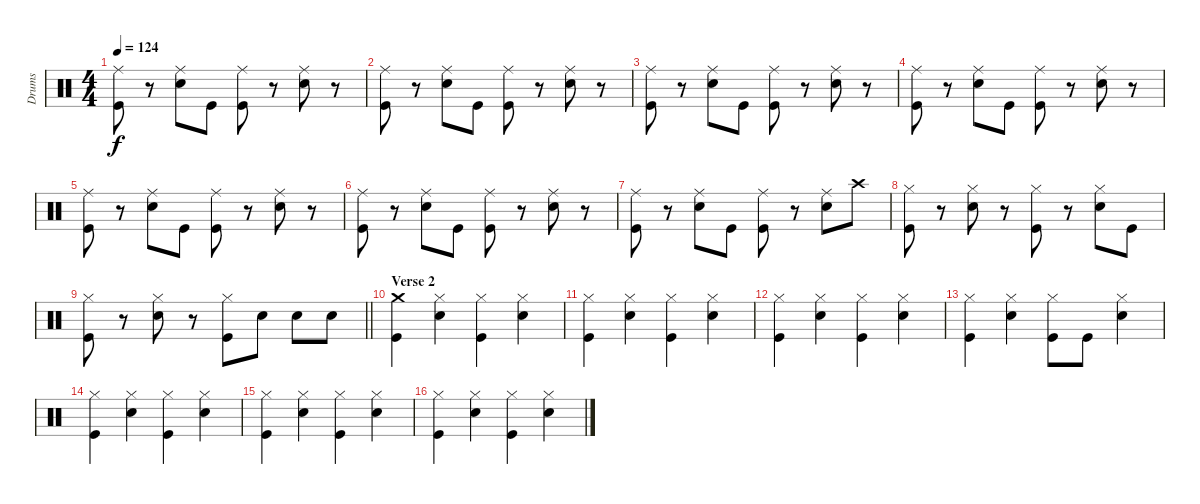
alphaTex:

\track ("Drums" "Drums") {instrument percussion}
\staff {score}
\articulation defaults
\ts (4 4)
\tempo 124
\clef neutral
\ks c
("Ride (middle)" "Kick (hit)").8{dy f} r.8 ("Ride (middle)" "Snare (hit) 2").8 "Kick (hit)".8 ("Ride (middle)" "Kick (hit)").8 r.8 ("Ride (middle)" "Snare (hit) 2").8 r.8 |
("Ride (middle)" "Kick (hit)").8 r.8 ("Ride (middle)" "Snare (hit) 2").8 "Kick (hit)".8 ("Ride (middle)" "Kick (hit)").8 r.8 ("Ride (middle)" "Snare (hit) 2").8 r.8 |
("Ride (middle)" "Kick (hit)").8 r.8 ("Ride (middle)" "Snare (hit) 2").8 "Kick (hit)".8 ("Ride (middle)" "Kick (hit)").8 r.8 ("Ride (middle)" "Snare (hit) 2").8 r.8 |
("Ride (middle)" "Kick (hit)").8 r.8 ("Ride (middle)" "Snare (hit) 2").8 "Kick (hit)".8 ("Ride (middle)" "Kick (hit)").8 r.8 ("Ride (middle)" "Snare (hit) 2").8 r.8 |
("Ride (middle)" "Kick (hit)").8 r.8 ("Ride (middle)" "Snare (hit) 2").8 "Kick (hit)".8 ("Ride (middle)" "Kick (hit)").8 r.8 ("Ride (middle)" "Snare (hit) 2").8 r.8 |
("Ride (middle)" "Kick (hit)").8 r.8 ("Ride (middle)" "Snare (hit) 2").8 "Kick (hit)".8 ("Ride (middle)" "Kick (hit)").8 r.8 ("Ride (middle)" "Snare (hit) 2").8 r.8 |
("Ride (middle)" "Kick (hit)").8 r.8 ("Ride (middle)" "Snare (hit) 2").8 "Kick (hit)".8 ("Ride (middle)" "Kick (hit)").8 r.8 ("Ride (middle)" "Snare (hit) 2").8 "Crash high (hit)".8 |
("Hi-Hat (closed)" "Kick (hit)").8 r.8 ("Hi-Hat (closed)" "Snare (hit) 2").8 r.8 ("Hi-Hat (closed)" "Kick (hit)").8 r.8 ("Hi-Hat (closed)" "Snare (hit) 2").8 "Kick (hit)".8 |
\barLineRight lightlight
("Hi-Hat (closed)" "Kick (hit)").8 r.8 ("Hi-Hat (closed)" "Snare (hit) 2").8 r.8 ("Hi-Hat (closed)" "Kick (hit)").8 "Snare (hit) 2".8 "Snare (hit) 2".8 "Snare (hit) 2".8 |
\section ("" "Verse 2")
("Crash medium (hit)" "Kick (hit)").4 ("Hi-Hat (closed)" "Snare (hit) 2").4 ("Hi-Hat (closed)" "Kick (hit)").4 ("Hi-Hat (closed)" "Snare (hit) 2").4 |
("Hi-Hat (closed)" "Kick (hit)").4 ("Hi-Hat (closed)" "Snare (hit) 2").4 ("Hi-Hat (closed)" "Kick (hit)").4 ("Hi-Hat (closed)" "Snare (hit) 2").4 |
("Hi-Hat (closed)" "Kick (hit)").4 ("Hi-Hat (closed)" "Snare (hit) 2").4 ("Hi-Hat (closed)" "Kick (hit)").4 ("Hi-Hat (closed)" "Snare (hit) 2").4 |
("Hi-Hat (closed)" "Kick (hit)").4 ("Hi-Hat (closed)" "Snare (hit) 2").4 ("Hi-Hat (closed)" "Kick (hit)").8 "Kick (hit)".8 ("Hi-Hat (closed)" "Snare (hit) 2").4 |
("Hi-Hat (closed)" "Kick (hit)").4 ("Hi-Hat (closed)" "Snare (hit) 2").4 ("Hi-Hat (closed)" "Kick (hit)").4 ("Hi-Hat (closed)" "Snare (hit) 2").4 |
("Hi-Hat (closed)" "Kick (hit)").4 ("Hi-Hat (closed)" "Snare (hit) 2").4 ("Hi-Hat (closed)" "Kick (hit)").4 ("Hi-Hat (closed)" "Snare (hit) 2").4 |
("Hi-Hat (closed)" "Kick (hit)").4 ("Hi-Hat (closed)" "Snare (hit) 2").4 ("Hi-Hat (closed)" "Kick (hit)").4 ("Hi-Hat (closed)" "Snare (hit) 2").4
